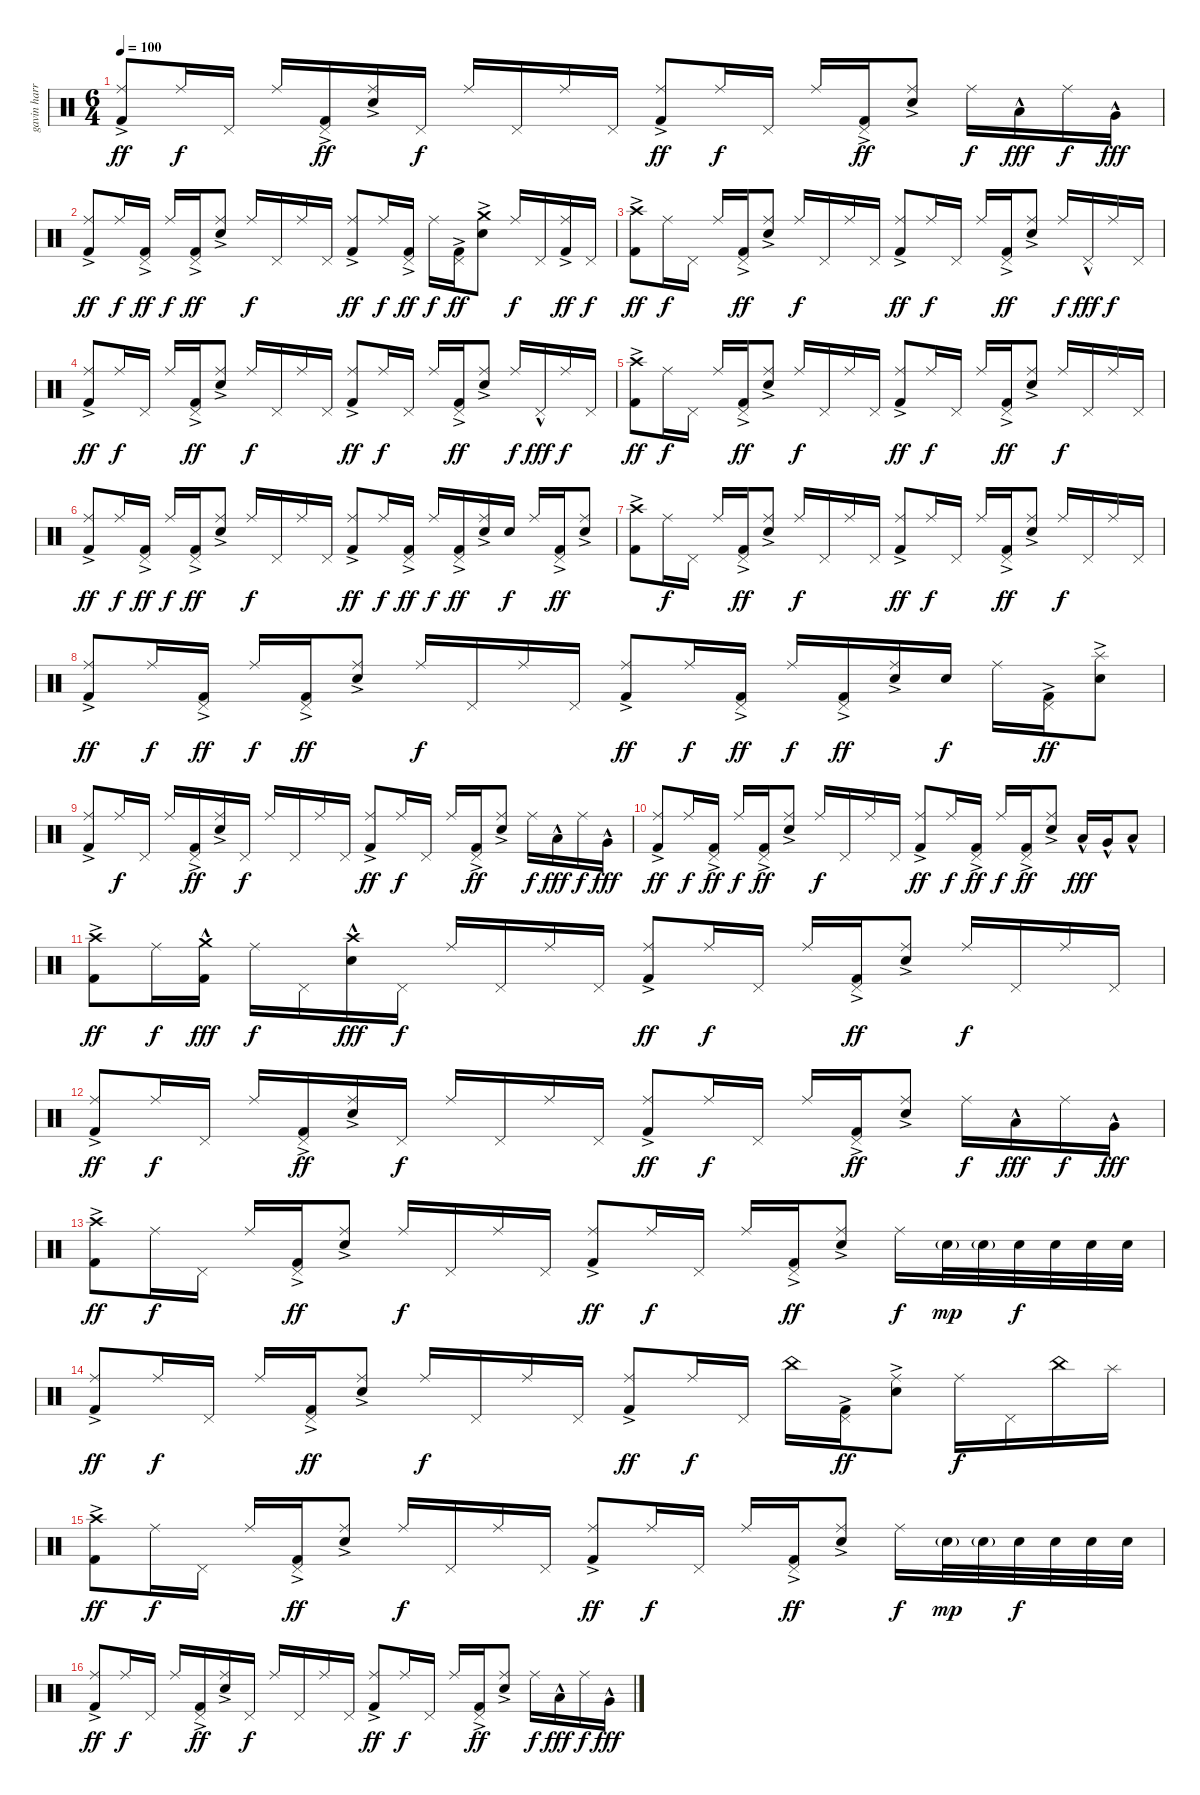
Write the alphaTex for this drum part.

\track ("gavin harrison" "gavin harr") {instrument percussion}
\staff {score}
\articulation defaults
\ts (6 4)
\tempo 100
\clef neutral
\ks c
("Ride (middle)" "Kick (hit) 2"{ac}).8{dy ff} "Ride (middle)".16{dy f} "Pedal Hi-Hat (hit)".16 "Ride (middle)".16 ("Pedal Hi-Hat (hit)" "Kick (hit) 2"{ac}).16{dy ff} ("Ride (middle)" "Electric Snare (hit)"{ac}).16 "Pedal Hi-Hat (hit)".16{dy f} "Ride (middle)".16 "Pedal Hi-Hat (hit)".16 "Ride (middle)".16 "Pedal Hi-Hat (hit)".16 ("Ride (middle)" "Kick (hit) 2"{ac}).8{dy ff} "Ride (middle)".16{dy f} "Pedal Hi-Hat (hit)".16 "Ride (middle)".16 ("Pedal Hi-Hat (hit)" "Kick (hit) 2"{ac}).16{dy ff} ("Ride (middle)" "Electric Snare (hit)"{ac}).8 "Ride (middle)".16{dy f} "Low Tom (hit)"{hac}.16{dy fff} "Ride (middle)".16{dy f} "Very Low Tom (hit)"{hac}.16{dy fff} |
("Ride (middle)" "Kick (hit) 2"{ac}).8{dy ff} "Ride (middle)".16{dy f} ("Pedal Hi-Hat (hit)" "Kick (hit) 2"{ac}).16{dy ff} "Ride (middle)".16{dy f} ("Pedal Hi-Hat (hit)" "Kick (hit) 2"{ac}).16{dy ff} ("Ride (middle)" "Electric Snare (hit)"{ac}).8 "Ride (middle)".16{dy f} "Pedal Hi-Hat (hit)".16 "Ride (middle)".16 "Pedal Hi-Hat (hit)".16 ("Ride (middle)" "Kick (hit) 2"{ac}).8{dy ff} "Ride (middle)".16{dy f} ("Pedal Hi-Hat (hit)" "Kick (hit) 2"{ac}).16{dy ff} "Ride (middle)".16{dy f} ("Pedal Hi-Hat (hit)" "Kick (hit) 2"{ac}).16{dy ff} ("Crash medium (hit)" "Electric Snare (hit)"{ac}).8 "Ride (middle)".16{dy f} "Pedal Hi-Hat (hit)".16 ("Ride (middle)" "Kick (hit) 2"{ac}).16{dy ff} "Pedal Hi-Hat (hit)".16{dy f} |
("Crash high (hit)" "Kick (hit) 2"{ac}).8{dy ff} "Ride (middle)".16{dy f} "Pedal Hi-Hat (hit)".16 "Ride (middle)".16 ("Pedal Hi-Hat (hit)" "Kick (hit) 2"{ac}).16{dy ff} ("Ride (middle)" "Electric Snare (hit)"{ac}).8 "Ride (middle)".16{dy f} "Pedal Hi-Hat (hit)".16 "Ride (middle)".16 "Pedal Hi-Hat (hit)".16 ("Ride (middle)" "Kick (hit) 2"{ac}).8{dy ff} "Ride (middle)".16{dy f} "Pedal Hi-Hat (hit)".16 "Ride (middle)".16 ("Pedal Hi-Hat (hit)" "Kick (hit) 2"{ac}).16{dy ff} ("Ride (middle)" "Electric Snare (hit)"{ac}).8 "Ride (middle)".16{dy f} "Pedal Hi-Hat (hit)"{hac}.16{dy fff} "Ride (middle)".16{dy f} "Pedal Hi-Hat (hit)".16 |
("Ride (middle)" "Kick (hit) 2"{ac}).8{dy ff} "Ride (middle)".16{dy f} "Pedal Hi-Hat (hit)".16 "Ride (middle)".16 ("Pedal Hi-Hat (hit)" "Kick (hit) 2"{ac}).16{dy ff} ("Ride (middle)" "Electric Snare (hit)"{ac}).8 "Ride (middle)".16{dy f} "Pedal Hi-Hat (hit)".16 "Ride (middle)".16 "Pedal Hi-Hat (hit)".16 ("Ride (middle)" "Kick (hit) 2"{ac}).8{dy ff} "Ride (middle)".16{dy f} "Pedal Hi-Hat (hit)".16 "Ride (middle)".16 ("Pedal Hi-Hat (hit)" "Kick (hit) 2"{ac}).16{dy ff} ("Ride (middle)" "Electric Snare (hit)"{ac}).8 "Ride (middle)".16{dy f} "Pedal Hi-Hat (hit)"{hac}.16{dy fff} "Ride (middle)".16{dy f} "Pedal Hi-Hat (hit)".16 |
("Crash high (hit)" "Kick (hit) 2"{ac}).8{dy ff} "Ride (middle)".16{dy f} "Pedal Hi-Hat (hit)".16 "Ride (middle)".16 ("Pedal Hi-Hat (hit)" "Kick (hit) 2"{ac}).16{dy ff} ("Ride (middle)" "Electric Snare (hit)"{ac}).8 "Ride (middle)".16{dy f} "Pedal Hi-Hat (hit)".16 "Ride (middle)".16 "Pedal Hi-Hat (hit)".16 ("Ride (middle)" "Kick (hit) 2"{ac}).8{dy ff} "Ride (middle)".16{dy f} "Pedal Hi-Hat (hit)".16 "Ride (middle)".16 ("Pedal Hi-Hat (hit)" "Kick (hit) 2"{ac}).16{dy ff} ("Ride (middle)" "Electric Snare (hit)"{ac}).8 "Ride (middle)".16{dy f} "Pedal Hi-Hat (hit)".16 "Ride (middle)".16 "Pedal Hi-Hat (hit)".16 |
("Ride (middle)" "Kick (hit) 2"{ac}).8{dy ff} "Ride (middle)".16{dy f} ("Pedal Hi-Hat (hit)" "Kick (hit) 2"{ac}).16{dy ff} "Ride (middle)".16{dy f} ("Pedal Hi-Hat (hit)" "Kick (hit) 2"{ac}).16{dy ff} ("Ride (middle)" "Electric Snare (hit)"{ac}).8 "Ride (middle)".16{dy f} "Pedal Hi-Hat (hit)".16 "Ride (middle)".16 "Pedal Hi-Hat (hit)".16 ("Ride (middle)" "Kick (hit) 2"{ac}).8{dy ff} "Ride (middle)".16{dy f} ("Pedal Hi-Hat (hit)" "Kick (hit) 2"{ac}).16{dy ff} "Ride (middle)".16{dy f} ("Pedal Hi-Hat (hit)" "Kick (hit) 2"{ac}).16{dy ff} ("Ride (middle)" "Electric Snare (hit)"{ac}).16 "Electric Snare (hit)".16{dy f} "Ride (middle)".16 ("Pedal Hi-Hat (hit)" "Kick (hit) 2"{ac}).16{dy ff} ("Ride (middle)" "Electric Snare (hit)"{ac}).8 |
("Crash high (hit)" "Kick (hit) 2"{ac}).8 "Ride (middle)".16{dy f} "Pedal Hi-Hat (hit)".16 "Ride (middle)".16 ("Pedal Hi-Hat (hit)" "Kick (hit) 2"{ac}).16{dy ff} ("Ride (middle)" "Electric Snare (hit)"{ac}).8 "Ride (middle)".16{dy f} "Pedal Hi-Hat (hit)".16 "Ride (middle)".16 "Pedal Hi-Hat (hit)".16 ("Ride (middle)" "Kick (hit) 2"{ac}).8{dy ff} "Ride (middle)".16{dy f} "Pedal Hi-Hat (hit)".16 "Ride (middle)".16 ("Pedal Hi-Hat (hit)" "Kick (hit) 2"{ac}).16{dy ff} ("Ride (middle)" "Electric Snare (hit)"{ac}).8 "Ride (middle)".16{dy f} "Pedal Hi-Hat (hit)".16 "Ride (middle)".16 "Pedal Hi-Hat (hit)".16 |
("Ride (middle)" "Kick (hit) 2"{ac}).8{dy ff} "Ride (middle)".16{dy f} ("Pedal Hi-Hat (hit)" "Kick (hit) 2"{ac}).16{dy ff} "Ride (middle)".16{dy f} ("Pedal Hi-Hat (hit)" "Kick (hit) 2"{ac}).16{dy ff} ("Ride (middle)" "Electric Snare (hit)"{ac}).8 "Ride (middle)".16{dy f} "Pedal Hi-Hat (hit)".16 "Ride (middle)".16 "Pedal Hi-Hat (hit)".16 ("Ride (middle)" "Kick (hit) 2"{ac}).8{dy ff} "Ride (middle)".16{dy f} ("Pedal Hi-Hat (hit)" "Kick (hit) 2"{ac}).16{dy ff} "Ride (middle)".16{dy f} ("Pedal Hi-Hat (hit)" "Kick (hit) 2"{ac}).16{dy ff} ("Ride (middle)" "Electric Snare (hit)"{ac}).16 "Electric Snare (hit)".16{dy f} "Ride (middle)".16 ("Pedal Hi-Hat (hit)" "Kick (hit) 2"{ac}).16{dy ff} ("Splash (hit)" "Electric Snare (hit)"{ac}).8 |
("Ride (middle)" "Kick (hit) 2"{ac}).8 "Ride (middle)".16{dy f} "Pedal Hi-Hat (hit)".16 "Ride (middle)".16 ("Pedal Hi-Hat (hit)" "Kick (hit) 2"{ac}).16{dy ff} ("Ride (middle)" "Electric Snare (hit)"{ac}).16 "Pedal Hi-Hat (hit)".16{dy f} "Ride (middle)".16 "Pedal Hi-Hat (hit)".16 "Ride (middle)".16 "Pedal Hi-Hat (hit)".16 ("Ride (middle)" "Kick (hit) 2"{ac}).8{dy ff} "Ride (middle)".16{dy f} "Pedal Hi-Hat (hit)".16 "Ride (middle)".16 ("Pedal Hi-Hat (hit)" "Kick (hit) 2"{ac}).16{dy ff} ("Ride (middle)" "Electric Snare (hit)"{ac}).8 "Ride (middle)".16{dy f} "Low Tom (hit)"{hac}.16{dy fff} "Ride (middle)".16{dy f} "Very Low Tom (hit)"{hac}.16{dy fff} |
("Ride (middle)" "Kick (hit) 2"{ac}).8{dy ff} "Ride (middle)".16{dy f} ("Pedal Hi-Hat (hit)" "Kick (hit) 2"{ac}).16{dy ff} "Ride (middle)".16{dy f} ("Pedal Hi-Hat (hit)" "Kick (hit) 2"{ac}).16{dy ff} ("Ride (middle)" "Electric Snare (hit)"{ac}).8 "Ride (middle)".16{dy f} "Pedal Hi-Hat (hit)".16 "Ride (middle)".16 "Pedal Hi-Hat (hit)".16 ("Ride (middle)" "Kick (hit) 2"{ac}).8{dy ff} "Ride (middle)".16{dy f} ("Pedal Hi-Hat (hit)" "Kick (hit) 2"{ac}).16{dy ff} "Ride (middle)".16{dy f} ("Pedal Hi-Hat (hit)" "Kick (hit) 2"{ac}).16{dy ff} ("Ride (middle)" "Electric Snare (hit)"{ac}).8 "Low Tom (hit)"{hac}.16{dy fff} "Very Low Tom (hit)"{hac}.16 "Low Floor Tom (hit)"{hac}.8 |
("Crash high (hit)" "Kick (hit) 2"{ac}).8{dy ff} "Ride (middle)".16{dy f} ("Crash medium (hit)" "Kick (hit) 2"{hac}).16{dy fff} "Ride (middle)".16{dy f} "Pedal Hi-Hat (hit)".16 ("Crash high (hit)" "Electric Snare (hit)"{hac}).16{dy fff} "Pedal Hi-Hat (hit)".16{dy f} "Ride (middle)".16 "Pedal Hi-Hat (hit)".16 "Ride (middle)".16 "Pedal Hi-Hat (hit)".16 ("Ride (middle)" "Kick (hit) 2"{ac}).8{dy ff} "Ride (middle)".16{dy f} "Pedal Hi-Hat (hit)".16 "Ride (middle)".16 ("Pedal Hi-Hat (hit)" "Kick (hit) 2"{ac}).16{dy ff} ("Ride (middle)" "Electric Snare (hit)"{ac}).8 "Ride (middle)".16{dy f} "Pedal Hi-Hat (hit)".16 "Ride (middle)".16 "Pedal Hi-Hat (hit)".16 |
("Ride (middle)" "Kick (hit) 2"{ac}).8{dy ff} "Ride (middle)".16{dy f} "Pedal Hi-Hat (hit)".16 "Ride (middle)".16 ("Pedal Hi-Hat (hit)" "Kick (hit) 2"{ac}).16{dy ff} ("Ride (middle)" "Electric Snare (hit)"{ac}).16 "Pedal Hi-Hat (hit)".16{dy f} "Ride (middle)".16 "Pedal Hi-Hat (hit)".16 "Ride (middle)".16 "Pedal Hi-Hat (hit)".16 ("Ride (middle)" "Kick (hit) 2"{ac}).8{dy ff} "Ride (middle)".16{dy f} "Pedal Hi-Hat (hit)".16 "Ride (middle)".16 ("Pedal Hi-Hat (hit)" "Kick (hit) 2"{ac}).16{dy ff} ("Ride (middle)" "Electric Snare (hit)"{ac}).8 "Ride (middle)".16{dy f} "Low Tom (hit)"{hac}.16{dy fff} "Ride (middle)".16{dy f} "Very Low Tom (hit)"{hac}.16{dy fff} |
("Crash high (hit)" "Kick (hit) 2"{ac}).8{dy ff} "Ride (middle)".16{dy f} "Pedal Hi-Hat (hit)".16 "Ride (middle)".16 ("Pedal Hi-Hat (hit)" "Kick (hit) 2"{ac}).16{dy ff} ("Ride (middle)" "Electric Snare (hit)"{ac}).8 "Ride (middle)".16{dy f} "Pedal Hi-Hat (hit)".16 "Ride (middle)".16 "Pedal Hi-Hat (hit)".16 ("Ride (middle)" "Kick (hit) 2"{ac}).8{dy ff} "Ride (middle)".16{dy f} "Pedal Hi-Hat (hit)".16 "Ride (middle)".16 ("Pedal Hi-Hat (hit)" "Kick (hit) 2"{ac}).16{dy ff} ("Ride (middle)" "Electric Snare (hit)"{ac}).8 "Ride (middle)".16{dy f} "Electric Snare (hit)"{g}.32{dy mp} "Electric Snare (hit)"{g}.32 "Electric Snare (hit)".32{dy f} "Electric Snare (hit)".32 "Electric Snare (hit)".32 "Electric Snare (hit)".32 |
("Ride (middle)" "Kick (hit) 2"{ac}).8{dy ff} "Ride (middle)".16{dy f} "Pedal Hi-Hat (hit)".16 "Ride (middle)".16 ("Pedal Hi-Hat (hit)" "Kick (hit) 2"{ac}).16{dy ff} ("Ride (middle)" "Electric Snare (hit)"{ac}).8 "Ride (middle)".16{dy f} "Pedal Hi-Hat (hit)".16 "Ride (middle)".16 "Pedal Hi-Hat (hit)".16 ("Ride (middle)" "Kick (hit) 2"{ac}).8{dy ff} "Ride (middle)".16{dy f} "Pedal Hi-Hat (hit)".16 "China (hit)".16 ("Pedal Hi-Hat (hit)" "Kick (hit) 2"{ac}).16{dy ff} ("Ride (middle)" "Electric Snare (hit)"{ac}).8 "Ride (middle)".16{dy f} "Pedal Hi-Hat (hit)".16 "China (hit)".16 "Splash (hit)".16 |
("Crash high (hit)" "Kick (hit) 2"{ac}).8{dy ff} "Ride (middle)".16{dy f} "Pedal Hi-Hat (hit)".16 "Ride (middle)".16 ("Pedal Hi-Hat (hit)" "Kick (hit) 2"{ac}).16{dy ff} ("Ride (middle)" "Electric Snare (hit)"{ac}).8 "Ride (middle)".16{dy f} "Pedal Hi-Hat (hit)".16 "Ride (middle)".16 "Pedal Hi-Hat (hit)".16 ("Ride (middle)" "Kick (hit) 2"{ac}).8{dy ff} "Ride (middle)".16{dy f} "Pedal Hi-Hat (hit)".16 "Ride (middle)".16 ("Pedal Hi-Hat (hit)" "Kick (hit) 2"{ac}).16{dy ff} ("Ride (middle)" "Electric Snare (hit)"{ac}).8 "Ride (middle)".16{dy f} "Electric Snare (hit)"{g}.32{dy mp} "Electric Snare (hit)"{g}.32 "Electric Snare (hit)".32{dy f} "Electric Snare (hit)".32 "Electric Snare (hit)".32 "Electric Snare (hit)".32 |
("Ride (middle)" "Kick (hit) 2"{ac}).8{dy ff} "Ride (middle)".16{dy f} "Pedal Hi-Hat (hit)".16 "Ride (middle)".16 ("Pedal Hi-Hat (hit)" "Kick (hit) 2"{ac}).16{dy ff} ("Ride (middle)" "Electric Snare (hit)"{ac}).16 "Pedal Hi-Hat (hit)".16{dy f} "Ride (middle)".16 "Pedal Hi-Hat (hit)".16 "Ride (middle)".16 "Pedal Hi-Hat (hit)".16 ("Ride (middle)" "Kick (hit) 2"{ac}).8{dy ff} "Ride (middle)".16{dy f} "Pedal Hi-Hat (hit)".16 "Ride (middle)".16 ("Pedal Hi-Hat (hit)" "Kick (hit) 2"{ac}).16{dy ff} ("Ride (middle)" "Electric Snare (hit)"{ac}).8 "Ride (middle)".16{dy f} "Low Tom (hit)"{hac}.16{dy fff} "Ride (middle)".16{dy f} "Very Low Tom (hit)"{hac}.16{dy fff}
